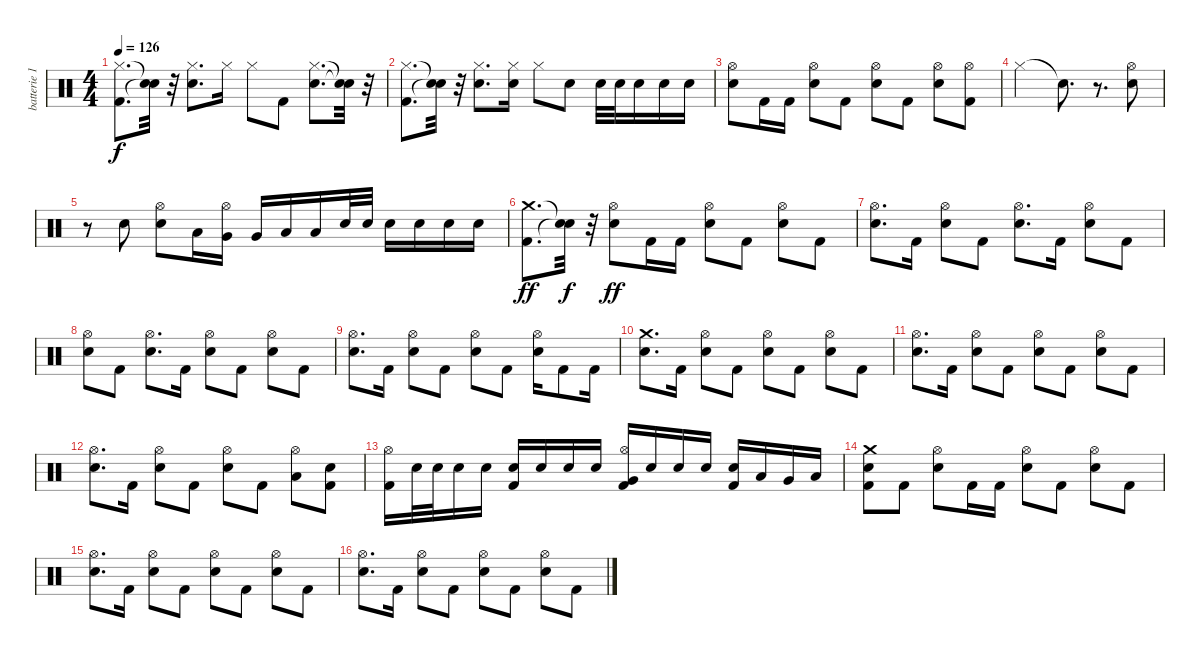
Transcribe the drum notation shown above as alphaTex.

\track ("batterie 1" "batterie 1") {instrument percussion}
\staff {score}
\articulation defaults
\ts (4 4)
\tempo 126
\clef neutral
\ks c
("Kick (hit) 2" "Hi-Hat (closed)").8{d dy f} ("Snare (hit)"{t} "Snare (hit)"{t}).32 r.32 ("Electric Snare (hit)" "Hi-Hat (closed)").8{d} "Hi-Hat (closed)".16 "Hi-Hat (closed)".8 "Kick (hit) 2".8 ("Electric Snare (hit)" "Hi-Hat (closed)").8{d} ("Snare (hit)"{t} "Snare (hit)"{t}).32 r.32 |
("Kick (hit) 2" "Hi-Hat (closed)").8{d} ("Snare (hit)"{t} "Snare (hit)"{t}).32 r.32 ("Electric Snare (hit)" "Hi-Hat (closed)").8{d} ("Electric Snare (hit)" "Hi-Hat (closed)").16 "Hi-Hat (closed)".8 "Electric Snare (hit)".8 "Electric Snare (hit)".32 "Electric Snare (hit)".32 "Electric Snare (hit)".16 "Electric Snare (hit)".16 "Electric Snare (hit)".16 |
("Electric Snare (hit)" "Hi-Hat (open)").8 "Kick (hit) 2".16 "Kick (hit) 2".16 ("Electric Snare (hit)" "Hi-Hat (open)").8 "Kick (hit) 2".8 ("Electric Snare (hit)" "Hi-Hat (open)").8 "Kick (hit) 2".8 ("Electric Snare (hit)" "Hi-Hat (open)").8 ("Kick (hit) 2" "Hi-Hat (open)").8 |
"Hi-Hat (closed)".2 "Snare (hit)"{t}.8{d} r.8{d} ("Electric Snare (hit)" "Hi-Hat (open)").8 |
r.8 "Electric Snare (hit)".8 ("Electric Snare (hit)" "Hi-Hat (open)").8 "Low Tom (hit)".16 ("Very Low Tom (hit)" "Hi-Hat (open)").16 "Very Low Tom (hit)".16 "Low Floor Tom (hit)".16 "Low Floor Tom (hit)".16 "Electric Snare (hit)".32 "Electric Snare (hit)".32 "Electric Snare (hit)".16 "Electric Snare (hit)".16 "Electric Snare (hit)".16 "Electric Snare (hit)".16 |
("Kick (hit) 2" "Crash medium (hit)").8{d dy ff} ("Snare (hit)"{t} "Snare (hit)"{t}).32{dy f} r.32 ("Electric Snare (hit)" "Hi-Hat (open)").8{dy ff} "Kick (hit) 2".16 "Kick (hit) 2".16 ("Electric Snare (hit)" "Hi-Hat (open)").8 "Kick (hit) 2".8 ("Electric Snare (hit)" "Hi-Hat (open)").8 "Kick (hit) 2".8 |
("Electric Snare (hit)" "Hi-Hat (open)").8{d} "Kick (hit) 2".16 ("Electric Snare (hit)" "Hi-Hat (open)").8 "Kick (hit) 2".8 ("Electric Snare (hit)" "Hi-Hat (open)").8{d} "Kick (hit) 2".16 ("Electric Snare (hit)" "Hi-Hat (open)").8 "Kick (hit) 2".8 |
("Electric Snare (hit)" "Hi-Hat (open)").8 "Kick (hit) 2".8 ("Electric Snare (hit)" "Hi-Hat (open)").8{d} "Kick (hit) 2".16 ("Electric Snare (hit)" "Hi-Hat (open)").8 "Kick (hit) 2".8 ("Electric Snare (hit)" "Hi-Hat (open)").8 "Kick (hit) 2".8 |
("Electric Snare (hit)" "Hi-Hat (open)").8{d} "Kick (hit) 2".16 ("Electric Snare (hit)" "Hi-Hat (open)").8 "Kick (hit) 2".8 ("Electric Snare (hit)" "Hi-Hat (open)").8 "Kick (hit) 2".8 ("Electric Snare (hit)" "Hi-Hat (open)").16 "Kick (hit) 2".8 "Kick (hit) 2".16 |
("Electric Snare (hit)" "Crash medium (hit)").8{d} "Kick (hit) 2".16 ("Electric Snare (hit)" "Hi-Hat (open)").8 "Kick (hit) 2".8 ("Electric Snare (hit)" "Hi-Hat (open)").8 "Kick (hit) 2".8 ("Electric Snare (hit)" "Hi-Hat (open)").8 "Kick (hit) 2".8 |
("Electric Snare (hit)" "Hi-Hat (open)").8{d} "Kick (hit) 2".16 ("Electric Snare (hit)" "Hi-Hat (open)").8 "Kick (hit) 2".8 ("Electric Snare (hit)" "Hi-Hat (open)").8 "Kick (hit) 2".8 ("Electric Snare (hit)" "Hi-Hat (open)").8 "Kick (hit) 2".8 |
("Electric Snare (hit)" "Hi-Hat (open)").8{d} "Kick (hit) 2".16 ("Electric Snare (hit)" "Hi-Hat (open)").8 "Kick (hit) 2".8 ("Electric Snare (hit)" "Hi-Hat (open)").8 "Kick (hit) 2".8 ("Low Floor Tom (hit)" "Hi-Hat (open)").8 ("Kick (hit) 2" "Electric Snare (hit)").8 |
("Kick (hit) 2" "Hi-Hat (open)").16 "Electric Snare (hit)".32 "Electric Snare (hit)".32 "Electric Snare (hit)".16 "Electric Snare (hit)".16 ("Kick (hit) 2" "Electric Snare (hit)").16 "Electric Snare (hit)".16 "Electric Snare (hit)".16 "Electric Snare (hit)".16 ("Kick (hit) 2" "Very Low Tom (hit)" "Hi-Hat (open)").16 "Electric Snare (hit)".16 "Electric Snare (hit)".16 "Electric Snare (hit)".16 ("Kick (hit) 2" "Electric Snare (hit)").16 "Low Tom (hit)".16 "Very Low Tom (hit)".16 "Low Floor Tom (hit)".16 |
("Kick (hit) 2" "Electric Snare (hit)" "Crash medium (hit)").8 "Kick (hit) 2".8 ("Electric Snare (hit)" "Hi-Hat (open)").8 "Kick (hit) 2".16 "Kick (hit) 2".16 ("Electric Snare (hit)" "Hi-Hat (open)").8 "Kick (hit) 2".8 ("Electric Snare (hit)" "Hi-Hat (open)").8 "Kick (hit) 2".8 |
("Electric Snare (hit)" "Hi-Hat (open)").8{d} "Kick (hit) 2".16 ("Electric Snare (hit)" "Hi-Hat (open)").8 "Kick (hit) 2".8 ("Electric Snare (hit)" "Hi-Hat (open)").8 "Kick (hit) 2".8 ("Electric Snare (hit)" "Hi-Hat (open)").8 "Kick (hit) 2".8 |
("Electric Snare (hit)" "Hi-Hat (open)").8{d} "Kick (hit) 2".16 ("Electric Snare (hit)" "Hi-Hat (open)").8 "Kick (hit) 2".8 ("Electric Snare (hit)" "Hi-Hat (open)").8 "Kick (hit) 2".8 ("Electric Snare (hit)" "Hi-Hat (open)").8 "Kick (hit) 2".8
